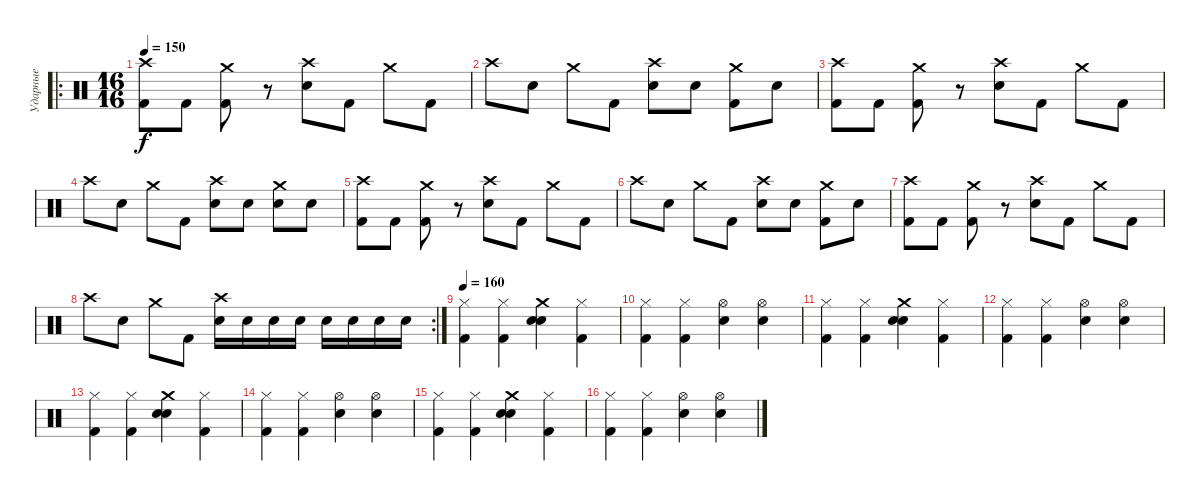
\track ("Ударные" "Ударные") {instrument percussion}
\staff {score}
\articulation defaults
\ro
\ts (16 16)
\tempo 150
\clef neutral
\ks c
("Crash high (hit)" "Kick (hit) 2").8{dy f} "Kick (hit) 2".8 ("Crash medium (hit)" "Kick (hit) 2").8 r.8 ("Crash high (hit)" "Electric Snare (hit)").8 "Kick (hit) 2".8 "Crash medium (hit)".8 "Kick (hit) 2".8 |
"Crash high (hit)".8 "Snare (hit) 2".8 "Crash medium (hit)".8 "Kick (hit) 2".8 ("Crash high (hit)" "Electric Snare (hit)").8 "Snare (hit) 2".8 ("Crash medium (hit)" "Kick (hit) 2").8 "Electric Snare (hit)".8 |
("Crash high (hit)" "Kick (hit) 2").8 "Kick (hit) 2".8 ("Crash medium (hit)" "Kick (hit) 2").8 r.8 ("Crash high (hit)" "Electric Snare (hit)").8 "Kick (hit) 2".8 "Crash medium (hit)".8 "Kick (hit) 2".8 |
"Crash high (hit)".8 "Electric Snare (hit)".8 "Crash medium (hit)".8 "Kick (hit) 2".8 ("Crash high (hit)" "Electric Snare (hit)").8 "Electric Snare (hit)".8 ("Crash medium (hit)" "Electric Snare (hit)").8 "Electric Snare (hit)".8 |
("Crash high (hit)" "Kick (hit) 2").8 "Kick (hit) 2".8 ("Crash medium (hit)" "Kick (hit) 2").8 r.8 ("Crash high (hit)" "Electric Snare (hit)").8 "Kick (hit) 2".8 "Crash medium (hit)".8 "Kick (hit) 2".8 |
"Crash high (hit)".8 "Snare (hit) 2".8 "Crash medium (hit)".8 "Kick (hit) 2".8 ("Crash high (hit)" "Electric Snare (hit)").8 "Snare (hit) 2".8 ("Crash medium (hit)" "Kick (hit) 2").8 "Electric Snare (hit)".8 |
("Crash high (hit)" "Kick (hit) 2").8 "Kick (hit) 2".8 ("Crash medium (hit)" "Kick (hit) 2").8 r.8 ("Crash high (hit)" "Electric Snare (hit)").8 "Kick (hit) 2".8 "Crash medium (hit)".8 "Kick (hit) 2".8 |
\rc 2 "Crash high (hit)".8 "Electric Snare (hit)".8 "Crash medium (hit)".8 "Kick (hit) 2".8
("Crash high (hit)" "Electric Snare (hit)").16 "Electric Snare (hit)".16 "Electric Snare (hit)".16 "Electric Snare (hit)".16 "Electric Snare (hit)".16 "Electric Snare (hit)".16 "Electric Snare (hit)".16 "Electric Snare (hit)".16 |
\tempo 160
("Hi-Hat (closed)" "Kick (hit) 2").4 ("Hi-Hat (closed)" "Kick (hit) 2").4 ("Crash medium (hit)" "Snare (hit) 2" "Electric Snare (hit)").4 ("Hi-Hat (closed)" "Kick (hit) 2").4 |
("Hi-Hat (closed)" "Kick (hit) 2").4 ("Hi-Hat (closed)" "Kick (hit) 2").4 ("Hi-Hat (open)" "Electric Snare (hit)").4 ("Hi-Hat (open)" "Electric Snare (hit)").4 |
("Hi-Hat (closed)" "Kick (hit) 2").4 ("Hi-Hat (closed)" "Kick (hit) 2").4 ("Crash medium (hit)" "Snare (hit) 2" "Electric Snare (hit)").4 ("Hi-Hat (closed)" "Kick (hit) 2").4 |
("Hi-Hat (closed)" "Kick (hit) 2").4 ("Hi-Hat (closed)" "Kick (hit) 2").4 ("Hi-Hat (open)" "Electric Snare (hit)").4 ("Hi-Hat (open)" "Electric Snare (hit)").4 |
("Hi-Hat (closed)" "Kick (hit) 2").4 ("Hi-Hat (closed)" "Kick (hit) 2").4 ("Crash medium (hit)" "Snare (hit) 2" "Electric Snare (hit)").4 ("Hi-Hat (closed)" "Kick (hit) 2").4 |
("Hi-Hat (closed)" "Kick (hit) 2").4 ("Hi-Hat (closed)" "Kick (hit) 2").4 ("Hi-Hat (open)" "Electric Snare (hit)").4 ("Hi-Hat (open)" "Electric Snare (hit)").4 |
("Hi-Hat (closed)" "Kick (hit) 2").4 ("Hi-Hat (closed)" "Kick (hit) 2").4 ("Crash medium (hit)" "Snare (hit) 2" "Electric Snare (hit)").4 ("Hi-Hat (closed)" "Kick (hit) 2").4 |
("Hi-Hat (closed)" "Kick (hit) 2").4 ("Hi-Hat (closed)" "Kick (hit) 2").4 ("Hi-Hat (open)" "Electric Snare (hit)").4 ("Hi-Hat (open)" "Electric Snare (hit)").4
